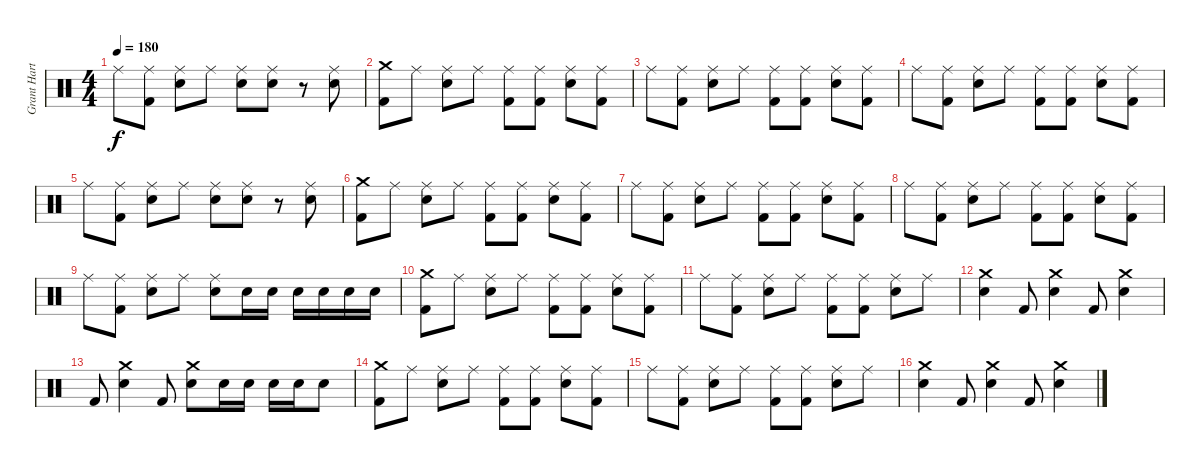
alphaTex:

\track ("Grant Hart - Drums" "Grant Hart") {instrument percussion}
\staff {score}
\articulation defaults
\ts (4 4)
\tempo 180
\clef neutral
\ks c "Ride (middle)".8{dy f}
("Ride (middle)" "Kick (hit) 2").8 ("Ride (middle)" "Electric Snare (hit)").8 "Ride (middle)".8 ("Ride (middle)" "Electric Snare (hit)").8 ("Ride (middle)" "Electric Snare (hit)").8 r.8 ("Ride (middle)" "Electric Snare (hit)").8 |
("Crash medium (hit)" "Kick (hit) 2").8 "Ride (middle)".8 ("Ride (middle)" "Electric Snare (hit)").8 "Ride (middle)".8 ("Ride (middle)" "Kick (hit) 2").8 ("Ride (middle)" "Kick (hit) 2").8 ("Ride (middle)" "Electric Snare (hit)").8 ("Ride (middle)" "Kick (hit) 2").8 |
"Ride (middle)".8 ("Ride (middle)" "Kick (hit) 2").8 ("Ride (middle)" "Electric Snare (hit)").8 "Ride (middle)".8 ("Ride (middle)" "Kick (hit) 2").8 ("Ride (middle)" "Kick (hit) 2").8 ("Ride (middle)" "Electric Snare (hit)").8 ("Ride (middle)" "Kick (hit) 2").8 |
"Ride (middle)".8 ("Ride (middle)" "Kick (hit) 2").8 ("Ride (middle)" "Electric Snare (hit)").8 "Ride (middle)".8 ("Ride (middle)" "Kick (hit) 2").8 ("Ride (middle)" "Kick (hit) 2").8 ("Ride (middle)" "Electric Snare (hit)").8 ("Ride (middle)" "Kick (hit) 2").8 |
"Ride (middle)".8 ("Ride (middle)" "Kick (hit) 2").8 ("Ride (middle)" "Electric Snare (hit)").8 "Ride (middle)".8 ("Ride (middle)" "Electric Snare (hit)").8 ("Ride (middle)" "Electric Snare (hit)").8 r.8 ("Ride (middle)" "Electric Snare (hit)").8 |
("Crash medium (hit)" "Kick (hit) 2").8 "Ride (middle)".8 ("Ride (middle)" "Electric Snare (hit)").8 "Ride (middle)".8 ("Ride (middle)" "Kick (hit) 2").8 ("Ride (middle)" "Kick (hit) 2").8 ("Ride (middle)" "Electric Snare (hit)").8 ("Ride (middle)" "Kick (hit) 2").8 |
"Ride (middle)".8 ("Ride (middle)" "Kick (hit) 2").8 ("Ride (middle)" "Electric Snare (hit)").8 "Ride (middle)".8 ("Ride (middle)" "Kick (hit) 2").8 ("Ride (middle)" "Kick (hit) 2").8 ("Ride (middle)" "Electric Snare (hit)").8 ("Ride (middle)" "Kick (hit) 2").8 |
"Ride (middle)".8 ("Ride (middle)" "Kick (hit) 2").8 ("Ride (middle)" "Electric Snare (hit)").8 "Ride (middle)".8 ("Ride (middle)" "Kick (hit) 2").8 ("Ride (middle)" "Kick (hit) 2").8 ("Ride (middle)" "Electric Snare (hit)").8 ("Ride (middle)" "Kick (hit) 2").8 |
"Ride (middle)".8 ("Ride (middle)" "Kick (hit) 2").8 ("Ride (middle)" "Electric Snare (hit)").8 "Ride (middle)".8 ("Ride (middle)" "Electric Snare (hit)").8 "Electric Snare (hit)".16 "Electric Snare (hit)".16 "Electric Snare (hit)".16 "Electric Snare (hit)".16 "Electric Snare (hit)".16 "Electric Snare (hit)".16 |
("Crash medium (hit)" "Kick (hit) 2").8 "Ride (middle)".8 ("Ride (middle)" "Electric Snare (hit)").8 "Ride (middle)".8 ("Ride (middle)" "Kick (hit) 2").8 ("Ride (middle)" "Kick (hit) 2").8 ("Ride (middle)" "Electric Snare (hit)").8 ("Ride (middle)" "Kick (hit) 2").8 |
"Ride (middle)".8 ("Ride (middle)" "Kick (hit) 2").8 ("Ride (middle)" "Electric Snare (hit)").8 "Ride (middle)".8 ("Ride (middle)" "Kick (hit) 2").8 ("Ride (middle)" "Kick (hit) 2").8 ("Ride (middle)" "Electric Snare (hit)").8 "Ride (middle)".8 |
("Crash medium (hit)" "Electric Snare (hit)").4 "Kick (hit) 2".8 ("Crash medium (hit)" "Electric Snare (hit)").4 "Kick (hit) 2".8 ("Crash medium (hit)" "Electric Snare (hit)").4 |
"Kick (hit) 2".8 ("Crash medium (hit)" "Electric Snare (hit)").4 "Kick (hit) 2".8 ("Crash medium (hit)" "Electric Snare (hit)").8 "Electric Snare (hit)".16 "Electric Snare (hit)".16 "Electric Snare (hit)".16 "Electric Snare (hit)".16 "Electric Snare (hit)".8 |
("Crash medium (hit)" "Kick (hit) 2").8 "Ride (middle)".8 ("Ride (middle)" "Electric Snare (hit)").8 "Ride (middle)".8 ("Ride (middle)" "Kick (hit) 2").8 ("Ride (middle)" "Kick (hit) 2").8 ("Ride (middle)" "Electric Snare (hit)").8 ("Ride (middle)" "Kick (hit) 2").8 |
"Ride (middle)".8 ("Ride (middle)" "Kick (hit) 2").8 ("Ride (middle)" "Electric Snare (hit)").8 "Ride (middle)".8 ("Ride (middle)" "Kick (hit) 2").8 ("Ride (middle)" "Kick (hit) 2").8 ("Ride (middle)" "Electric Snare (hit)").8 "Ride (middle)".8 |
("Crash medium (hit)" "Electric Snare (hit)").4 "Kick (hit) 2".8 ("Crash medium (hit)" "Electric Snare (hit)").4 "Kick (hit) 2".8 ("Crash medium (hit)" "Electric Snare (hit)").4
